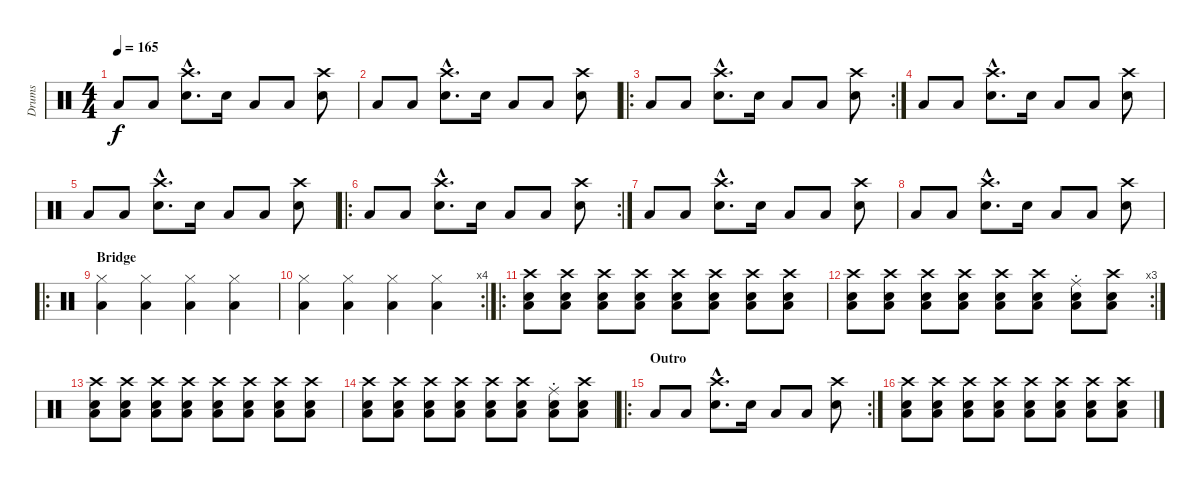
\track ("Drums" "Drums") {instrument percussion}
\staff {score}
\articulation defaults
\ts (4 4)
\tempo 165
\clef neutral
\ks c "Low Tom (hit)".8{dy f} "Low Tom (hit)".8
("Electric Snare (hit)"{hac} "Crash high (hit)"{hac}).8{d} "Electric Snare (hit)".16 "Low Tom (hit)".8 "Low Tom (hit)".8 ("Electric Snare (hit)" "Crash high (hit)").8 |
"Low Tom (hit)".8 "Low Tom (hit)".8 ("Electric Snare (hit)"{hac} "Crash high (hit)"{hac}).8{d} "Electric Snare (hit)".16 "Low Tom (hit)".8 "Low Tom (hit)".8 ("Electric Snare (hit)" "Crash high (hit)").8 |
\ro
\rc 2 "Low Tom (hit)".8 "Low Tom (hit)".8
("Electric Snare (hit)"{hac} "Crash high (hit)"{hac}).8{d} "Electric Snare (hit)".16 "Low Tom (hit)".8 "Low Tom (hit)".8 ("Electric Snare (hit)" "Crash high (hit)").8 |
"Low Tom (hit)".8 "Low Tom (hit)".8 ("Electric Snare (hit)"{hac} "Crash high (hit)"{hac}).8{d} "Electric Snare (hit)".16 "Low Tom (hit)".8 "Low Tom (hit)".8 ("Electric Snare (hit)" "Crash high (hit)").8 |
"Low Tom (hit)".8 "Low Tom (hit)".8 ("Electric Snare (hit)"{hac} "Crash high (hit)"{hac}).8{d} "Electric Snare (hit)".16 "Low Tom (hit)".8 "Low Tom (hit)".8 ("Electric Snare (hit)" "Crash high (hit)").8 |
\ro
\rc 2 "Low Tom (hit)".8 "Low Tom (hit)".8
("Electric Snare (hit)"{hac} "Crash high (hit)"{hac}).8{d} "Electric Snare (hit)".16 "Low Tom (hit)".8 "Low Tom (hit)".8 ("Electric Snare (hit)" "Crash high (hit)").8 |
"Low Tom (hit)".8 "Low Tom (hit)".8 ("Electric Snare (hit)"{hac} "Crash high (hit)"{hac}).8{d} "Electric Snare (hit)".16 "Low Tom (hit)".8 "Low Tom (hit)".8 ("Electric Snare (hit)" "Crash high (hit)").8 |
"Low Tom (hit)".8 "Low Tom (hit)".8 ("Electric Snare (hit)"{hac} "Crash high (hit)"{hac}).8{d} "Electric Snare (hit)".16 "Low Tom (hit)".8 "Low Tom (hit)".8 ("Electric Snare (hit)" "Crash high (hit)").8 |
\ro
\section ("" "Bridge")
("Hi-Hat (closed)" "Low Floor Tom (hit)").4 ("Hi-Hat (closed)" "Low Floor Tom (hit)").4 ("Hi-Hat (closed)" "Low Floor Tom (hit)").4 ("Hi-Hat (closed)" "Low Floor Tom (hit)").4 |
\rc 4
("Hi-Hat (closed)" "Low Floor Tom (hit)").4 ("Hi-Hat (closed)" "Low Floor Tom (hit)").4 ("Hi-Hat (closed)" "Low Floor Tom (hit)").4 ("Hi-Hat (closed)" "Low Floor Tom (hit)").4 |
\ro
("Crash high (hit)" "Low Floor Tom (hit)" "Electric Snare (hit)").8 ("Crash high (hit)" "Low Floor Tom (hit)" "Electric Snare (hit)").8 ("Crash high (hit)" "Low Floor Tom (hit)" "Electric Snare (hit)").8 ("Crash high (hit)" "Low Floor Tom (hit)" "Electric Snare (hit)").8 ("Crash high (hit)" "Low Floor Tom (hit)" "Electric Snare (hit)").8 ("Crash high (hit)" "Low Floor Tom (hit)" "Electric Snare (hit)").8 ("Crash high (hit)" "Low Floor Tom (hit)" "Electric Snare (hit)").8 ("Crash high (hit)" "Low Floor Tom (hit)" "Electric Snare (hit)").8 |
\rc 3
("Crash high (hit)" "Low Floor Tom (hit)" "Electric Snare (hit)").8 ("Crash high (hit)" "Low Floor Tom (hit)" "Electric Snare (hit)").8 ("Crash high (hit)" "Low Floor Tom (hit)" "Electric Snare (hit)").8 ("Crash high (hit)" "Low Floor Tom (hit)" "Electric Snare (hit)").8 ("Crash high (hit)" "Low Floor Tom (hit)" "Electric Snare (hit)").8 ("Crash high (hit)" "Low Floor Tom (hit)" "Electric Snare (hit)").8 ("Ride (choke)" "Low Floor Tom (hit)" "Electric Snare (hit)").8 ("Crash high (hit)" "Low Floor Tom (hit)" "Electric Snare (hit)").8 |
("Crash high (hit)" "Low Floor Tom (hit)" "Electric Snare (hit)").8 ("Crash high (hit)" "Low Floor Tom (hit)" "Electric Snare (hit)").8 ("Crash high (hit)" "Low Floor Tom (hit)" "Electric Snare (hit)").8 ("Crash high (hit)" "Low Floor Tom (hit)" "Electric Snare (hit)").8 ("Crash high (hit)" "Low Floor Tom (hit)" "Electric Snare (hit)").8 ("Crash high (hit)" "Low Floor Tom (hit)" "Electric Snare (hit)").8 ("Crash high (hit)" "Low Floor Tom (hit)" "Electric Snare (hit)").8 ("Crash high (hit)" "Low Floor Tom (hit)" "Electric Snare (hit)").8 |
("Crash high (hit)" "Low Floor Tom (hit)" "Electric Snare (hit)").8 ("Crash high (hit)" "Low Floor Tom (hit)" "Electric Snare (hit)").8 ("Crash high (hit)" "Low Floor Tom (hit)" "Electric Snare (hit)").8 ("Crash high (hit)" "Low Floor Tom (hit)" "Electric Snare (hit)").8 ("Crash high (hit)" "Low Floor Tom (hit)" "Electric Snare (hit)").8 ("Crash high (hit)" "Low Floor Tom (hit)" "Electric Snare (hit)").8 ("Ride (choke)" "Low Floor Tom (hit)" "Electric Snare (hit)").8 ("Crash high (hit)" "Low Floor Tom (hit)" "Electric Snare (hit)").8 |
\ro
\rc 2
\section ("" "Outro")
"Low Tom (hit)".8 "Low Tom (hit)".8 ("Electric Snare (hit)"{hac} "Crash high (hit)"{hac}).8{d} "Electric Snare (hit)".16 "Low Tom (hit)".8 "Low Tom (hit)".8 ("Electric Snare (hit)" "Crash high (hit)").8 |
("Crash high (hit)" "Low Floor Tom (hit)" "Electric Snare (hit)").8 ("Crash high (hit)" "Low Floor Tom (hit)" "Electric Snare (hit)").8 ("Crash high (hit)" "Low Floor Tom (hit)" "Electric Snare (hit)").8 ("Crash high (hit)" "Low Floor Tom (hit)" "Electric Snare (hit)").8 ("Crash high (hit)" "Low Floor Tom (hit)" "Electric Snare (hit)").8 ("Crash high (hit)" "Low Floor Tom (hit)" "Electric Snare (hit)").8 ("Crash high (hit)" "Low Floor Tom (hit)" "Electric Snare (hit)").8 ("Crash high (hit)" "Low Floor Tom (hit)" "Electric Snare (hit)").8
